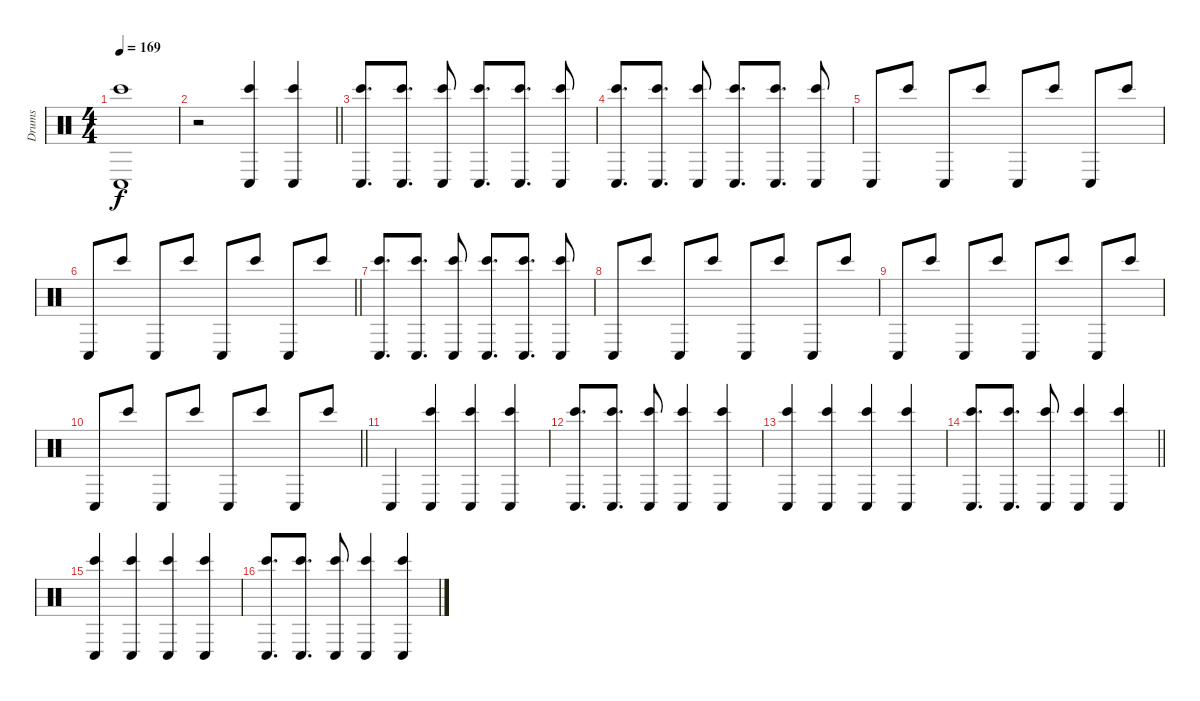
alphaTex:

\track ("Drums" "Drums") {instrument percussion}
\staff
\articulation defaults
\ts (4 4)
\tempo 169
\clef neutral
\ks c
("Bongo High (hit)" "Conga low (hit)").1{dy f} |
\barLineRight lightlight
r.2 ("Bongo High (hit)" "Conga low (hit)").4 ("Bongo High (hit)" "Conga low (hit)").4 |
\section ("" "")
("Bongo High (hit)" "Conga low (hit)").8{d} ("Bongo High (hit)" "Conga low (hit)").8{d} ("Bongo High (hit)" "Conga low (hit)").8 ("Bongo High (hit)" "Conga low (hit)").8{d} ("Bongo High (hit)" "Conga low (hit)").8{d} ("Bongo High (hit)" "Conga low (hit)").8 |
("Bongo High (hit)" "Conga low (hit)").8{d} ("Bongo High (hit)" "Conga low (hit)").8{d} ("Bongo High (hit)" "Conga low (hit)").8 ("Bongo High (hit)" "Conga low (hit)").8{d} ("Bongo High (hit)" "Conga low (hit)").8{d} ("Bongo High (hit)" "Conga low (hit)").8 |
"Conga low (hit)".8 "Bongo High (hit)".8 "Conga low (hit)".8 "Bongo High (hit)".8 "Conga low (hit)".8 "Bongo High (hit)".8 "Conga low (hit)".8 "Bongo High (hit)".8 |
\barLineRight lightlight "Conga low (hit)".8 "Bongo High (hit)".8 "Conga low (hit)".8 "Bongo High (hit)".8 "Conga low (hit)".8 "Bongo High (hit)".8 "Conga low (hit)".8 "Bongo High (hit)".8
|
("Bongo High (hit)" "Conga low (hit)").8{d} ("Bongo High (hit)" "Conga low (hit)").8{d} ("Bongo High (hit)" "Conga low (hit)").8 ("Bongo High (hit)" "Conga low (hit)").8{d} ("Bongo High (hit)" "Conga low (hit)").8{d} ("Bongo High (hit)" "Conga low (hit)").8 |
"Conga low (hit)".8 "Bongo High (hit)".8 "Conga low (hit)".8 "Bongo High (hit)".8 "Conga low (hit)".8 "Bongo High (hit)".8 "Conga low (hit)".8 "Bongo High (hit)".8 |
"Conga low (hit)".8 "Bongo High (hit)".8 "Conga low (hit)".8 "Bongo High (hit)".8 "Conga low (hit)".8 "Bongo High (hit)".8 "Conga low (hit)".8 "Bongo High (hit)".8 |
\barLineRight lightlight "Conga low (hit)".8 "Bongo High (hit)".8 "Conga low (hit)".8 "Bongo High (hit)".8 "Conga low (hit)".8 "Bongo High (hit)".8 "Conga low (hit)".8 "Bongo High (hit)".8
|
\section ("" "")
"Conga low (hit)".4 ("Bongo High (hit)" "Conga low (hit)").4 ("Bongo High (hit)" "Conga low (hit)").4 ("Bongo High (hit)" "Conga low (hit)").4 |
("Bongo High (hit)" "Conga low (hit)").8{d} ("Bongo High (hit)" "Conga low (hit)").8{d} ("Bongo High (hit)" "Conga low (hit)").8 ("Bongo High (hit)" "Conga low (hit)").4 ("Bongo High (hit)" "Conga low (hit)").4 |
("Bongo High (hit)" "Conga low (hit)").4 ("Bongo High (hit)" "Conga low (hit)").4 ("Bongo High (hit)" "Conga low (hit)").4 ("Bongo High (hit)" "Conga low (hit)").4 |
\barLineRight lightlight
("Bongo High (hit)" "Conga low (hit)").8{d} ("Bongo High (hit)" "Conga low (hit)").8{d} ("Bongo High (hit)" "Conga low (hit)").8 ("Bongo High (hit)" "Conga low (hit)").4 ("Bongo High (hit)" "Conga low (hit)").4 |
("Bongo High (hit)" "Conga low (hit)").4 ("Bongo High (hit)" "Conga low (hit)").4 ("Bongo High (hit)" "Conga low (hit)").4 ("Bongo High (hit)" "Conga low (hit)").4 |
("Bongo High (hit)" "Conga low (hit)").8{d} ("Bongo High (hit)" "Conga low (hit)").8{d} ("Bongo High (hit)" "Conga low (hit)").8 ("Bongo High (hit)" "Conga low (hit)").4 ("Bongo High (hit)" "Conga low (hit)").4
